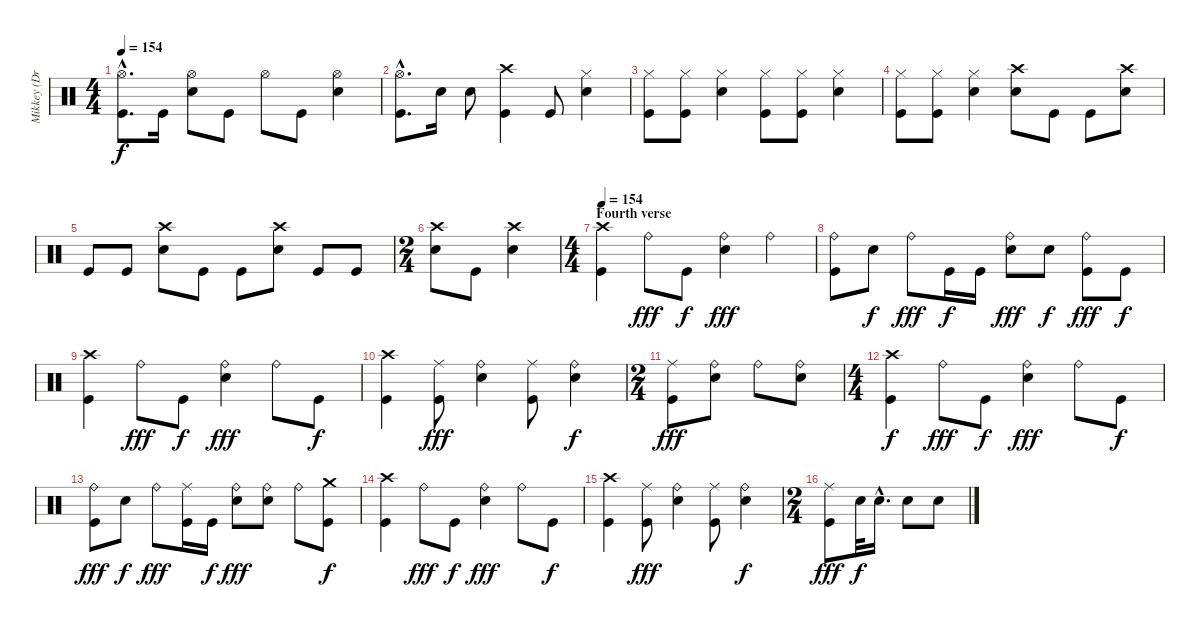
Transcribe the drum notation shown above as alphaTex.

\track ("Mikkey (Drums)" "Mikkey (Dr") {instrument percussion}
\staff {score}
\articulation defaults
\ts (4 4)
\tempo 154
\clef neutral
\ks c
("Hi-Hat (open)"{hac} "Kick (hit)"{hac}).8{d dy f} "Kick (hit)".16 ("Hi-Hat (open)" "Electric Snare (hit)").8 "Kick (hit)".8 "Hi-Hat (open)".8 "Kick (hit)".8 ("Hi-Hat (open)" "Electric Snare (hit)").4 |
("Hi-Hat (open)"{hac} "Kick (hit)"{hac}).8{d} "Electric Snare (hit)".16 "Electric Snare (hit)".8 ("Crash high (hit)" "Kick (hit)").4 "Kick (hit)".8 ("Hi-Hat (closed)" "Electric Snare (hit)").4 |
("Hi-Hat (closed)" "Kick (hit)").8 ("Hi-Hat (closed)" "Kick (hit)").8 ("Hi-Hat (closed)" "Electric Snare (hit)").4 ("Hi-Hat (closed)" "Kick (hit)").8 ("Hi-Hat (closed)" "Kick (hit)").8 ("Hi-Hat (closed)" "Electric Snare (hit)").4 |
("Hi-Hat (closed)" "Kick (hit)").8 ("Hi-Hat (closed)" "Kick (hit)").8 ("Hi-Hat (closed)" "Electric Snare (hit)").4 ("Crash high (hit)" "Electric Snare (hit)").8 "Kick (hit)".8 "Kick (hit)".8 ("Crash high (hit)" "Electric Snare (hit)").8 |
"Kick (hit)".8 "Kick (hit)".8 ("Crash high (hit)" "Electric Snare (hit)").8 "Kick (hit)".8 "Kick (hit)".8 ("Crash high (hit)" "Electric Snare (hit)").8 "Kick (hit)".8 "Kick (hit)".8 |
\ts (2 4)
("Crash high (hit)" "Electric Snare (hit)").8 "Kick (hit)".8 ("Crash high (hit)" "Electric Snare (hit)").4 |
\ts (4 4)
\section ("" "Fourth verse")
\tempo 154
("Crash high (hit)" "Kick (hit)").4 "Ride (bell)".8{dy fff} "Kick (hit)".8{dy f} ("Ride (bell)" "Electric Snare (hit)").4{dy fff} "Ride (bell)".4 |
("Ride (bell)" "Kick (hit)").8 "Electric Snare (hit)".8{dy f} "Ride (bell)".8{dy fff} "Kick (hit)".16{dy f} "Kick (hit)".16 ("Ride (bell)" "Electric Snare (hit)").8{dy fff} "Electric Snare (hit)".8{dy f} ("Ride (bell)" "Kick (hit)").8{dy fff} "Kick (hit)".8{dy f} |
("Crash high (hit)" "Kick (hit)").4 "Ride (bell)".8{dy fff} "Kick (hit)".8{dy f} ("Ride (bell)" "Electric Snare (hit)").4{dy fff} "Ride (bell)".8 "Kick (hit)".8{dy f} |
("Crash high (hit)" "Kick (hit)").4 ("Ride (middle)" "Kick (hit)").8{dy fff} ("Ride (bell)" "Electric Snare (hit)").4 ("Ride (middle)" "Kick (hit)").8 ("Ride (bell)" "Electric Snare (hit)").4{dy f} |
\ts (2 4)
("Ride (middle)" "Kick (hit)").8{dy fff} ("Ride (bell)" "Electric Snare (hit)").8 "Ride (bell)".8 ("Ride (bell)" "Electric Snare (hit)").8 |
\ts (4 4)
("Crash high (hit)" "Kick (hit)").4{dy f} "Ride (bell)".8{dy fff} "Kick (hit)".8{dy f} ("Ride (bell)" "Electric Snare (hit)").4{dy fff} "Ride (bell)".8 "Kick (hit)".8{dy f} |
("Ride (bell)" "Kick (hit)").8{dy fff} "Electric Snare (hit)".8{dy f} "Ride (bell)".8{dy fff} ("Ride (middle)" "Kick (hit)").16 "Kick (hit)".16{dy f} ("Ride (bell)" "Electric Snare (hit)").8{dy fff} ("Ride (bell)" "Electric Snare (hit)").8 "Ride (bell)".8 ("Crash medium (hit)" "Kick (hit)").8{dy f} |
("Crash high (hit)" "Kick (hit)").4 "Ride (bell)".8{dy fff} "Kick (hit)".8{dy f} ("Ride (bell)" "Electric Snare (hit)").4{dy fff} "Ride (bell)".8 "Kick (hit)".8{dy f} |
("Crash high (hit)" "Kick (hit)").4 ("Ride (middle)" "Kick (hit)").8{dy fff} ("Ride (bell)" "Electric Snare (hit)").4 ("Ride (middle)" "Kick (hit)").8 ("Ride (bell)" "Electric Snare (hit)").4{dy f} |
\ts (2 4)
("Ride (middle)" "Kick (hit)").8{dy fff} "Electric Snare (hit)".32{dy f} "Electric Snare (hit)"{hac}.16{d} "Electric Snare (hit)".8 "Electric Snare (hit)".8
